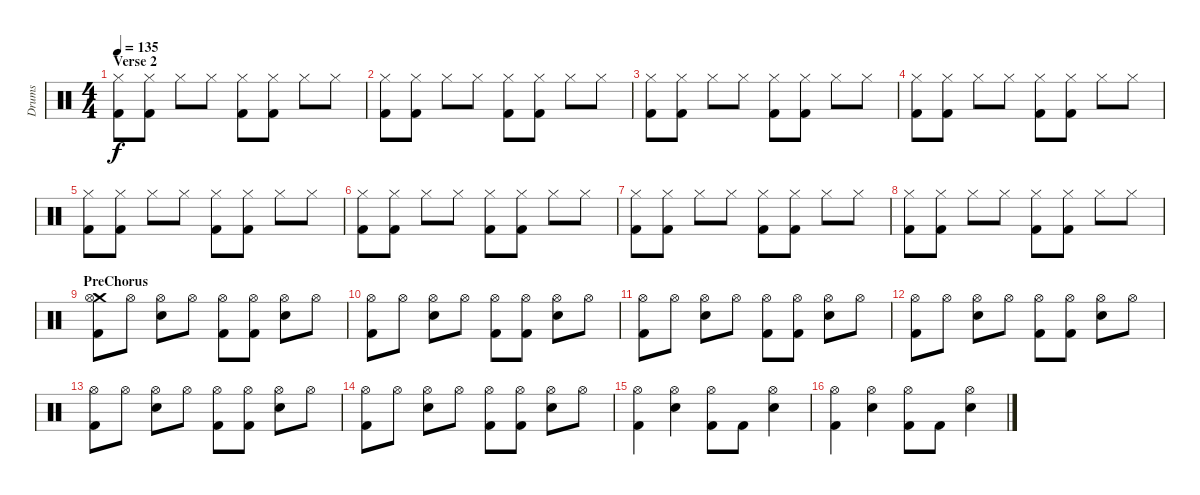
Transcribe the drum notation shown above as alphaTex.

\track ("Drums" "Drums") {instrument percussion}
\staff {score}
\articulation defaults
\ts (4 4)
\section ("" "Verse 2")
\tempo 135
\clef neutral
\ks c
("Hi-Hat (closed)" "Kick (hit) 2").8{dy f} ("Hi-Hat (closed)" "Kick (hit) 2").8 "Hi-Hat (closed)".8 "Hi-Hat (closed)".8 ("Hi-Hat (closed)" "Kick (hit) 2").8 ("Hi-Hat (closed)" "Kick (hit) 2").8 "Hi-Hat (closed)".8 "Hi-Hat (closed)".8 |
("Hi-Hat (closed)" "Kick (hit) 2").8 ("Hi-Hat (closed)" "Kick (hit) 2").8 "Hi-Hat (closed)".8 "Hi-Hat (closed)".8 ("Hi-Hat (closed)" "Kick (hit) 2").8 ("Hi-Hat (closed)" "Kick (hit) 2").8 "Hi-Hat (closed)".8 "Hi-Hat (closed)".8 |
("Hi-Hat (closed)" "Kick (hit) 2").8 ("Hi-Hat (closed)" "Kick (hit) 2").8 "Hi-Hat (closed)".8 "Hi-Hat (closed)".8 ("Hi-Hat (closed)" "Kick (hit) 2").8 ("Hi-Hat (closed)" "Kick (hit) 2").8 "Hi-Hat (closed)".8 "Hi-Hat (closed)".8 |
("Hi-Hat (closed)" "Kick (hit) 2").8 ("Hi-Hat (closed)" "Kick (hit) 2").8 "Hi-Hat (closed)".8 "Hi-Hat (closed)".8 ("Hi-Hat (closed)" "Kick (hit) 2").8 ("Hi-Hat (closed)" "Kick (hit) 2").8 "Hi-Hat (closed)".8 "Hi-Hat (closed)".8 |
("Hi-Hat (closed)" "Kick (hit) 2").8 ("Hi-Hat (closed)" "Kick (hit) 2").8 "Hi-Hat (closed)".8 "Hi-Hat (closed)".8 ("Hi-Hat (closed)" "Kick (hit) 2").8 ("Hi-Hat (closed)" "Kick (hit) 2").8 "Hi-Hat (closed)".8 "Hi-Hat (closed)".8 |
("Hi-Hat (closed)" "Kick (hit) 2").8 ("Hi-Hat (closed)" "Kick (hit) 2").8 "Hi-Hat (closed)".8 "Hi-Hat (closed)".8 ("Hi-Hat (closed)" "Kick (hit) 2").8 ("Hi-Hat (closed)" "Kick (hit) 2").8 "Hi-Hat (closed)".8 "Hi-Hat (closed)".8 |
("Hi-Hat (closed)" "Kick (hit) 2").8 ("Hi-Hat (closed)" "Kick (hit) 2").8 "Hi-Hat (closed)".8 "Hi-Hat (closed)".8 ("Hi-Hat (closed)" "Kick (hit) 2").8 ("Hi-Hat (closed)" "Kick (hit) 2").8 "Hi-Hat (closed)".8 "Hi-Hat (closed)".8 |
("Hi-Hat (closed)" "Kick (hit) 2").8 ("Hi-Hat (closed)" "Kick (hit) 2").8 "Hi-Hat (closed)".8 "Hi-Hat (closed)".8 ("Hi-Hat (closed)" "Kick (hit) 2").8 ("Hi-Hat (closed)" "Kick (hit) 2").8 "Hi-Hat (closed)".8 "Hi-Hat (closed)".8 |
\section ("" "PreChorus")
("Crash medium (hit)" "Hi-Hat (open)" "Kick (hit) 2").8 "Hi-Hat (open)".8 ("Hi-Hat (open)" "Snare (hit) 2").8 "Hi-Hat (open)".8 ("Hi-Hat (open)" "Kick (hit) 2").8 ("Hi-Hat (open)" "Kick (hit) 2").8 ("Hi-Hat (open)" "Snare (hit) 2").8 "Hi-Hat (open)".8 |
("Hi-Hat (open)" "Kick (hit) 2").8 "Hi-Hat (open)".8 ("Hi-Hat (open)" "Snare (hit) 2").8 "Hi-Hat (open)".8 ("Hi-Hat (open)" "Kick (hit) 2").8 ("Hi-Hat (open)" "Kick (hit) 2").8 ("Hi-Hat (open)" "Snare (hit) 2").8 "Hi-Hat (open)".8 |
("Hi-Hat (open)" "Kick (hit) 2").8 "Hi-Hat (open)".8 ("Hi-Hat (open)" "Snare (hit) 2").8 "Hi-Hat (open)".8 ("Hi-Hat (open)" "Kick (hit) 2").8 ("Hi-Hat (open)" "Kick (hit) 2").8 ("Hi-Hat (open)" "Snare (hit) 2").8 "Hi-Hat (open)".8 |
("Hi-Hat (open)" "Kick (hit) 2").8 "Hi-Hat (open)".8 ("Hi-Hat (open)" "Snare (hit) 2").8 "Hi-Hat (open)".8 ("Hi-Hat (open)" "Kick (hit) 2").8 ("Hi-Hat (open)" "Kick (hit) 2").8 ("Hi-Hat (open)" "Snare (hit) 2").8 "Hi-Hat (open)".8 |
("Hi-Hat (open)" "Kick (hit) 2").8 "Hi-Hat (open)".8 ("Hi-Hat (open)" "Snare (hit) 2").8 "Hi-Hat (open)".8 ("Hi-Hat (open)" "Kick (hit) 2").8 ("Hi-Hat (open)" "Kick (hit) 2").8 ("Hi-Hat (open)" "Snare (hit) 2").8 "Hi-Hat (open)".8 |
("Hi-Hat (open)" "Kick (hit) 2").8 "Hi-Hat (open)".8 ("Hi-Hat (open)" "Snare (hit) 2").8 "Hi-Hat (open)".8 ("Hi-Hat (open)" "Kick (hit) 2").8 ("Hi-Hat (open)" "Kick (hit) 2").8 ("Hi-Hat (open)" "Snare (hit) 2").8 "Hi-Hat (open)".8 |
("Hi-Hat (open)" "Kick (hit) 2").4 ("Hi-Hat (open)" "Snare (hit) 2").4 ("Hi-Hat (open)" "Kick (hit) 2").8 "Kick (hit) 2".8 ("Hi-Hat (open)" "Snare (hit) 2").4 |
("Hi-Hat (open)" "Kick (hit) 2").4 ("Hi-Hat (open)" "Snare (hit) 2").4 ("Hi-Hat (open)" "Kick (hit) 2").8 "Kick (hit) 2".8 ("Hi-Hat (open)" "Snare (hit) 2").4
